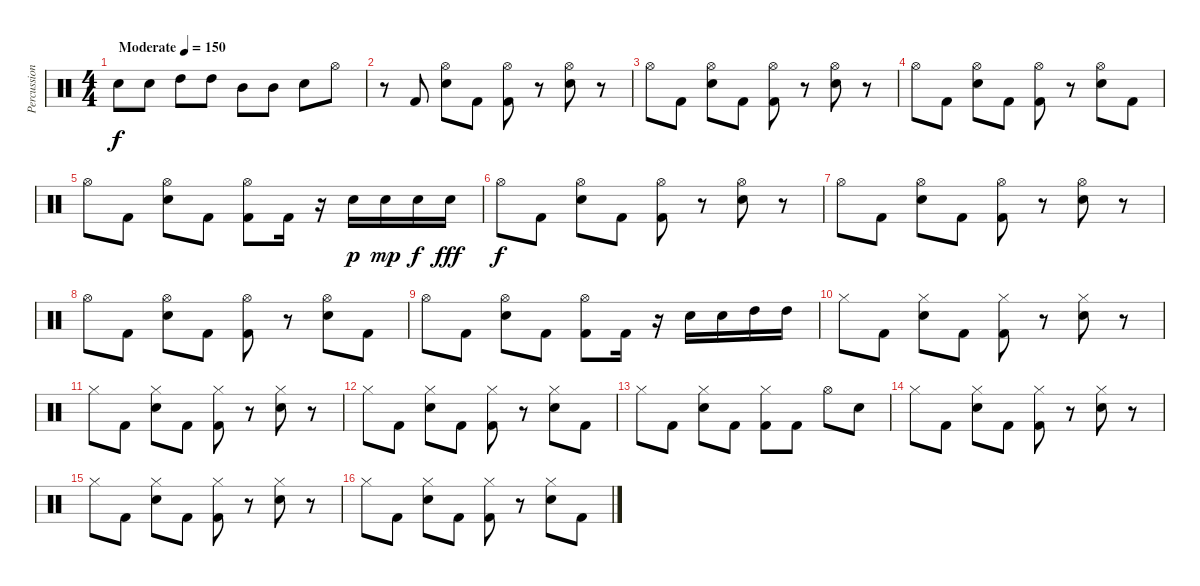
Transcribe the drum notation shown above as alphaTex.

\track ("Percussion" "Percussion") {instrument percussion}
\staff {score}
\articulation defaults
\ts (4 4)
\tempo (150 "Moderate")
\clef neutral
\ks c "Electric Snare (hit)".8{dy f} "Electric Snare (hit)".8 "High Tom (hit)".8 "High Tom (hit)".8 "Mid Tom (hit)".8 "Mid Tom (hit)".8 "Electric Snare (hit)".8 "Hi-Hat (open)".8
|
r.8 "Kick (hit) 2".8 ("Hi-Hat (open)" "Electric Snare (hit)").8 "Kick (hit) 2".8 ("Hi-Hat (open)" "Kick (hit) 2").8 r.8 ("Hi-Hat (open)" "Electric Snare (hit)").8 r.8 |
"Hi-Hat (open)".8 "Kick (hit) 2".8 ("Hi-Hat (open)" "Electric Snare (hit)").8 "Kick (hit) 2".8 ("Hi-Hat (open)" "Kick (hit) 2").8 r.8 ("Hi-Hat (open)" "Electric Snare (hit)").8 r.8 |
"Hi-Hat (open)".8 "Kick (hit) 2".8 ("Hi-Hat (open)" "Electric Snare (hit)").8 "Kick (hit) 2".8 ("Hi-Hat (open)" "Kick (hit) 2").8 r.8 ("Hi-Hat (open)" "Electric Snare (hit)").8 "Kick (hit) 2".8 |
"Hi-Hat (open)".8 "Kick (hit) 2".8 ("Hi-Hat (open)" "Electric Snare (hit)").8 "Kick (hit) 2".8 ("Hi-Hat (open)" "Kick (hit) 2").8 "Kick (hit) 2".16 r.16 "Electric Snare (hit)".16{dy p} "Electric Snare (hit)".16{dy mp} "Electric Snare (hit)".16{dy f} "Electric Snare (hit)".16{dy fff} |
"Hi-Hat (open)".8{dy f} "Kick (hit) 2".8 ("Hi-Hat (open)" "Electric Snare (hit)").8 "Kick (hit) 2".8 ("Hi-Hat (open)" "Kick (hit) 2").8 r.8 ("Hi-Hat (open)" "Electric Snare (hit)").8 r.8 |
"Hi-Hat (open)".8 "Kick (hit) 2".8 ("Hi-Hat (open)" "Electric Snare (hit)").8 "Kick (hit) 2".8 ("Hi-Hat (open)" "Kick (hit) 2").8 r.8 ("Hi-Hat (open)" "Electric Snare (hit)").8 r.8 |
"Hi-Hat (open)".8 "Kick (hit) 2".8 ("Hi-Hat (open)" "Electric Snare (hit)").8 "Kick (hit) 2".8 ("Hi-Hat (open)" "Kick (hit) 2").8 r.8 ("Hi-Hat (open)" "Electric Snare (hit)").8 "Kick (hit) 2".8 |
"Hi-Hat (open)".8 "Kick (hit) 2".8 ("Hi-Hat (open)" "Electric Snare (hit)").8 "Kick (hit) 2".8 ("Hi-Hat (open)" "Kick (hit) 2").8 "Kick (hit) 2".16 r.16 "Electric Snare (hit)".16 "Electric Snare (hit)".16 "High Tom (hit)".16 "High Tom (hit)".16 |
"Hi-Hat (closed)".8 "Kick (hit) 2".8 ("Hi-Hat (closed)" "Electric Snare (hit)").8 "Kick (hit) 2".8 ("Hi-Hat (closed)" "Kick (hit) 2").8 r.8 ("Hi-Hat (closed)" "Electric Snare (hit)").8 r.8 |
"Hi-Hat (closed)".8 "Kick (hit) 2".8 ("Hi-Hat (closed)" "Electric Snare (hit)").8 "Kick (hit) 2".8 ("Hi-Hat (closed)" "Kick (hit) 2").8 r.8 ("Hi-Hat (closed)" "Electric Snare (hit)").8 r.8 |
"Hi-Hat (closed)".8 "Kick (hit) 2".8 ("Hi-Hat (closed)" "Electric Snare (hit)").8 "Kick (hit) 2".8 ("Hi-Hat (closed)" "Kick (hit) 2").8 r.8 ("Hi-Hat (closed)" "Electric Snare (hit)").8 "Kick (hit) 2".8 |
"Hi-Hat (closed)".8 "Kick (hit) 2".8 ("Hi-Hat (closed)" "Electric Snare (hit)").8 "Kick (hit) 2".8 ("Hi-Hat (closed)" "Kick (hit) 2").8 "Kick (hit) 2".8 "Hi-Hat (open)".8 "Electric Snare (hit)".8 |
"Hi-Hat (closed)".8 "Kick (hit) 2".8 ("Hi-Hat (closed)" "Electric Snare (hit)").8 "Kick (hit) 2".8 ("Hi-Hat (closed)" "Kick (hit) 2").8 r.8 ("Hi-Hat (closed)" "Electric Snare (hit)").8 r.8 |
"Hi-Hat (closed)".8 "Kick (hit) 2".8 ("Hi-Hat (closed)" "Electric Snare (hit)").8 "Kick (hit) 2".8 ("Hi-Hat (closed)" "Kick (hit) 2").8 r.8 ("Hi-Hat (closed)" "Electric Snare (hit)").8 r.8 |
"Hi-Hat (closed)".8 "Kick (hit) 2".8 ("Hi-Hat (closed)" "Electric Snare (hit)").8 "Kick (hit) 2".8 ("Hi-Hat (closed)" "Kick (hit) 2").8 r.8 ("Hi-Hat (closed)" "Electric Snare (hit)").8 "Kick (hit) 2".8
